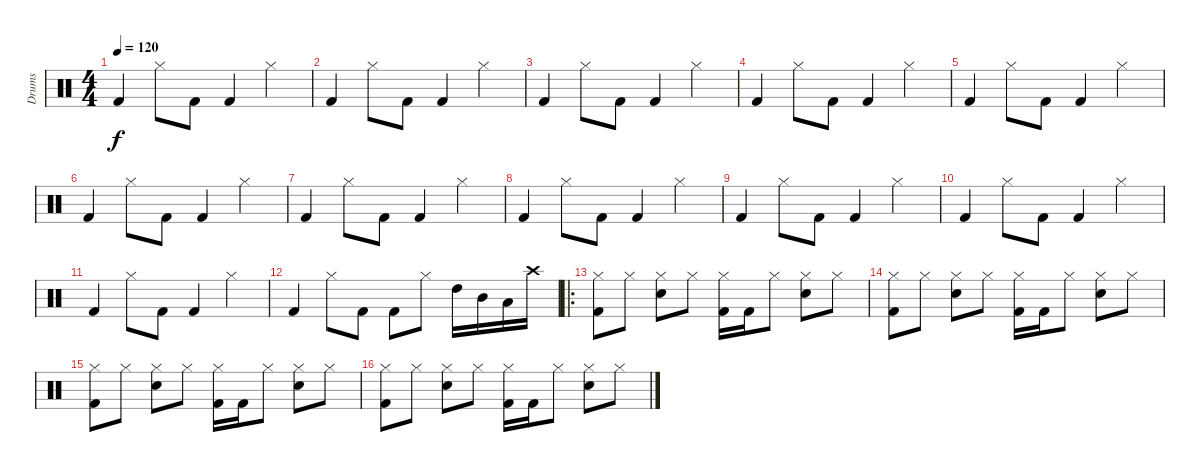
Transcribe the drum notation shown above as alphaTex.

\track ("Drums" "Drums") {instrument percussion}
\staff {score}
\articulation defaults
\ts (4 4)
\tempo 120
\clef neutral
\ks c "Kick (hit) 2".4{dy f} "Hi-Hat (closed)".8 "Kick (hit) 2".8 "Kick (hit) 2".4 "Hi-Hat (closed)".4
|
"Kick (hit) 2".4 "Hi-Hat (closed)".8 "Kick (hit) 2".8 "Kick (hit) 2".4 "Hi-Hat (closed)".4 |
"Kick (hit) 2".4 "Hi-Hat (closed)".8 "Kick (hit) 2".8 "Kick (hit) 2".4 "Hi-Hat (closed)".4 |
"Kick (hit) 2".4 "Hi-Hat (closed)".8 "Kick (hit) 2".8 "Kick (hit) 2".4 "Hi-Hat (closed)".4 |
"Kick (hit) 2".4 "Hi-Hat (closed)".8 "Kick (hit) 2".8 "Kick (hit) 2".4 "Hi-Hat (closed)".4 |
"Kick (hit) 2".4 "Hi-Hat (closed)".8 "Kick (hit) 2".8 "Kick (hit) 2".4 "Hi-Hat (closed)".4 |
"Kick (hit) 2".4 "Hi-Hat (closed)".8 "Kick (hit) 2".8 "Kick (hit) 2".4 "Hi-Hat (closed)".4 |
"Kick (hit) 2".4 "Hi-Hat (closed)".8 "Kick (hit) 2".8 "Kick (hit) 2".4 "Hi-Hat (closed)".4 |
"Kick (hit) 2".4 "Hi-Hat (closed)".8 "Kick (hit) 2".8 "Kick (hit) 2".4 "Hi-Hat (closed)".4 |
"Kick (hit) 2".4 "Hi-Hat (closed)".8 "Kick (hit) 2".8 "Kick (hit) 2".4 "Hi-Hat (closed)".4 |
"Kick (hit) 2".4 "Hi-Hat (closed)".8 "Kick (hit) 2".8 "Kick (hit) 2".4 "Hi-Hat (closed)".4 |
"Kick (hit) 2".4 "Hi-Hat (closed)".8 "Kick (hit) 2".8 "Kick (hit) 2".8 "Hi-Hat (closed)".8 "High Tom (hit)".16 "Mid Tom (hit)".16 "Low Tom (hit)".16 "Crash high (hit)".16 |
\ro
("Hi-Hat (closed)" "Kick (hit) 2").8 "Hi-Hat (closed)".8 ("Hi-Hat (closed)" "Snare (hit) 2").8 "Hi-Hat (closed)".8 ("Hi-Hat (closed)" "Kick (hit) 2").16 "Kick (hit) 2".16 "Hi-Hat (closed)".8 ("Hi-Hat (closed)" "Snare (hit) 2").8 "Hi-Hat (closed)".8 |
("Hi-Hat (closed)" "Kick (hit) 2").8 "Hi-Hat (closed)".8 ("Hi-Hat (closed)" "Snare (hit) 2").8 "Hi-Hat (closed)".8 ("Hi-Hat (closed)" "Kick (hit) 2").16 "Kick (hit) 2".16 "Hi-Hat (closed)".8 ("Hi-Hat (closed)" "Snare (hit) 2").8 "Hi-Hat (closed)".8 |
("Hi-Hat (closed)" "Kick (hit) 2").8 "Hi-Hat (closed)".8 ("Hi-Hat (closed)" "Snare (hit) 2").8 "Hi-Hat (closed)".8 ("Hi-Hat (closed)" "Kick (hit) 2").16 "Kick (hit) 2".16 "Hi-Hat (closed)".8 ("Hi-Hat (closed)" "Snare (hit) 2").8 "Hi-Hat (closed)".8 |
("Hi-Hat (closed)" "Kick (hit) 2").8 "Hi-Hat (closed)".8 ("Hi-Hat (closed)" "Snare (hit) 2").8 "Hi-Hat (closed)".8 ("Hi-Hat (closed)" "Kick (hit) 2").16 "Kick (hit) 2".16 "Hi-Hat (closed)".8 ("Hi-Hat (closed)" "Snare (hit) 2").8 "Hi-Hat (closed)".8
